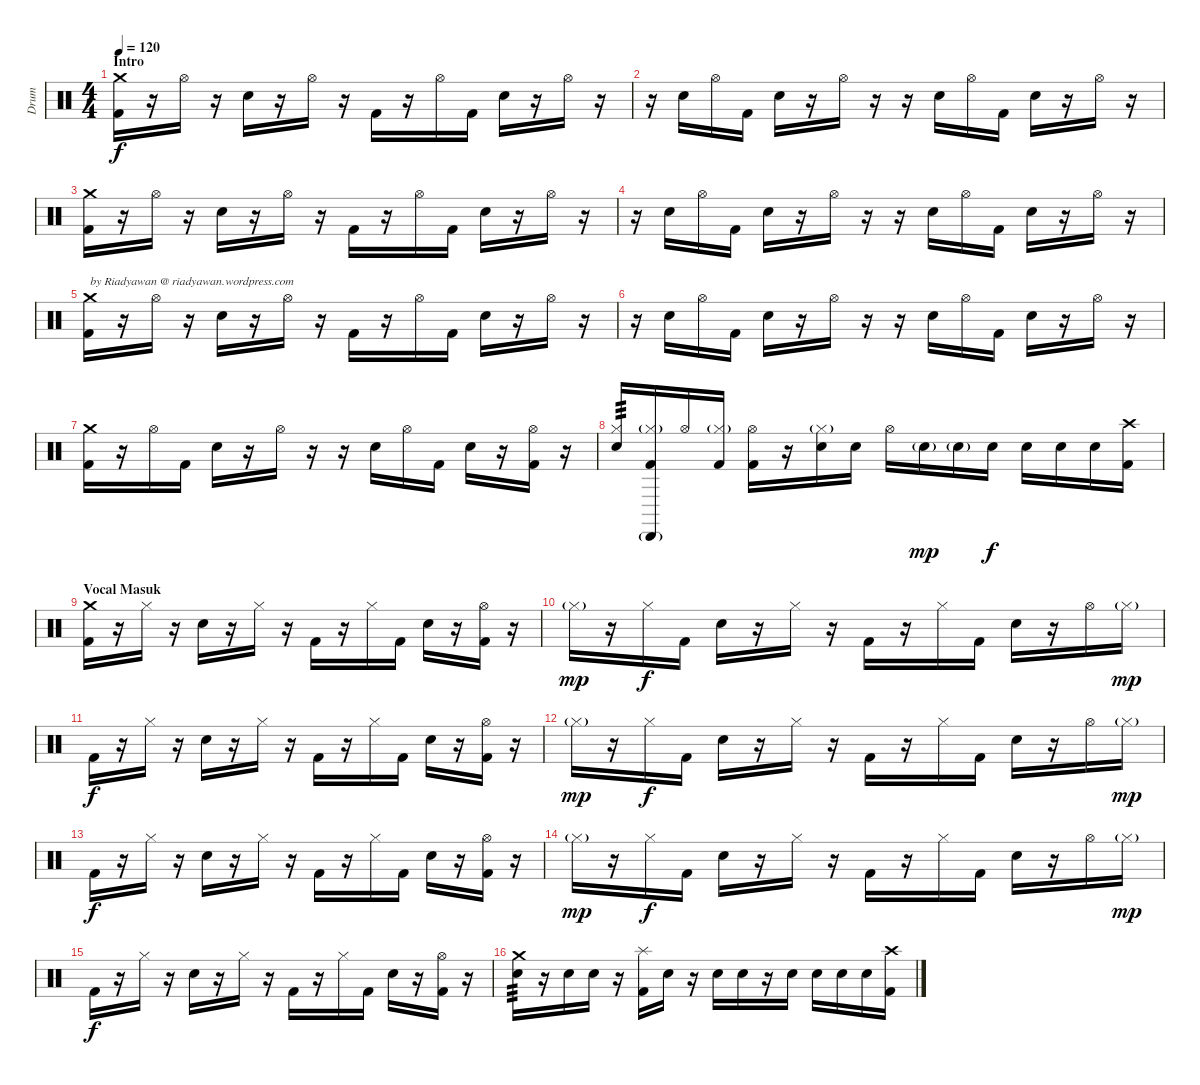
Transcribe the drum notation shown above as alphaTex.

\track ("Drum" "Drum") {instrument percussion}
\staff {score}
\articulation defaults
\ts (4 4)
\section ("" "Intro")
\tempo 120
\clef neutral
\ks c
("Crash medium (hit)" "Kick (hit) 2").16{dy f} r.16 "Hi-Hat (open)".16 r.16 "Snare (hit) 2".16 r.16 "Hi-Hat (open)".16 r.16 "Kick (hit) 2".16 r.16 "Hi-Hat (open)".16 "Kick (hit) 2".16 "Snare (hit) 2".16 r.16 "Hi-Hat (open)".16 r.16 |
r.16 "Snare (hit) 2".16 "Hi-Hat (open)".16 "Kick (hit) 2".16 "Snare (hit) 2".16 r.16 "Hi-Hat (open)".16 r.16 r.16 "Snare (hit) 2".16 "Hi-Hat (open)".16 "Kick (hit) 2".16 "Snare (hit) 2".16 r.16 "Hi-Hat (open)".16 r.16 |
("Crash medium (hit)" "Kick (hit) 2").16 r.16 "Hi-Hat (open)".16 r.16 "Snare (hit) 2".16 r.16 "Hi-Hat (open)".16 r.16 "Kick (hit) 2".16 r.16 "Hi-Hat (open)".16 "Kick (hit) 2".16 "Snare (hit) 2".16 r.16 "Hi-Hat (open)".16 r.16 |
r.16 "Snare (hit) 2".16 "Hi-Hat (open)".16 "Kick (hit) 2".16 "Snare (hit) 2".16 r.16 "Hi-Hat (open)".16 r.16 r.16 "Snare (hit) 2".16 "Hi-Hat (open)".16 "Kick (hit) 2".16 "Snare (hit) 2".16 r.16 "Hi-Hat (open)".16 r.16 |
("Crash medium (hit)" "Kick (hit) 2").16{txt "by Riadyawan @ riadyawan.wordpress.com"} r.16 "Hi-Hat (open)".16 r.16 "Snare (hit) 2".16 r.16 "Hi-Hat (open)".16 r.16 "Kick (hit) 2".16 r.16 "Hi-Hat (open)".16 "Kick (hit) 2".16 "Snare (hit) 2".16 r.16 "Hi-Hat (open)".16 r.16 |
r.16 "Snare (hit) 2".16 "Hi-Hat (open)".16 "Kick (hit) 2".16 "Snare (hit) 2".16 r.16 "Hi-Hat (open)".16 r.16 r.16 "Snare (hit) 2".16 "Hi-Hat (open)".16 "Kick (hit) 2".16 "Snare (hit) 2".16 r.16 "Hi-Hat (open)".16 r.16 |
("Crash medium (hit)" "Kick (hit) 2").16 r.16 "Hi-Hat (open)".16 "Kick (hit) 2".16 "Snare (hit) 2".16 r.16 "Hi-Hat (open)".16 r.16 r.16 "Snare (hit) 2".16 "Hi-Hat (open)".16 "Kick (hit) 2".16 "Snare (hit) 2".16 r.16 ("Hi-Hat (open)" "Kick (hit) 2").16 r.16 |
("Hi-Hat (closed)" "Snare (hit) 2").16{tp 3} ("Cabasa (hit)"{g} "Hi-Hat (closed)"{g} "Kick (hit) 2").16 "Hi-Hat (open)".16 ("Hi-Hat (closed)"{g} "Kick (hit) 2").16 ("Hi-Hat (open)" "Kick (hit) 2").16 r.16 ("Hi-Hat (closed)"{g} "Snare (hit) 2").16 "Snare (hit) 2".16 "Hi-Hat (open)".16 "Snare (hit) 2"{g}.16{dy mp} "Snare (hit) 2"{g}.16 "Snare (hit) 2".16{dy f} "Snare (hit) 2".16 "Snare (hit) 2".16 "Snare (hit) 2".16 ("Crash high (hit)" "Kick (hit) 2").16 |
\section ("" "Vocal Masuk")
("Crash medium (hit)" "Kick (hit) 2").16 r.16 "Hi-Hat (closed)".16 r.16 "Snare (hit) 2".16 r.16 "Hi-Hat (closed)".16 r.16 "Kick (hit) 2".16 r.16 "Hi-Hat (closed)".16 "Kick (hit) 2".16 "Snare (hit) 2".16 r.16 ("Hi-Hat (open)" "Kick (hit) 2").16 r.16 |
"Hi-Hat (closed)"{g}.16{dy mp} r.16 "Hi-Hat (closed)".16{dy f} "Kick (hit) 2".16 "Snare (hit) 2".16 r.16 "Hi-Hat (closed)".16 r.16 "Kick (hit) 2".16 r.16 "Hi-Hat (closed)".16 "Kick (hit) 2".16 "Snare (hit) 2".16 r.16 "Hi-Hat (open)".16 "Hi-Hat (closed)"{g}.16{dy mp} |
"Kick (hit) 2".16{dy f} r.16 "Hi-Hat (closed)".16 r.16 "Snare (hit) 2".16 r.16 "Hi-Hat (closed)".16 r.16 "Kick (hit) 2".16 r.16 "Hi-Hat (closed)".16 "Kick (hit) 2".16 "Snare (hit) 2".16 r.16 ("Hi-Hat (open)" "Kick (hit) 2").16 r.16 |
"Hi-Hat (closed)"{g}.16{dy mp} r.16 "Hi-Hat (closed)".16{dy f} "Kick (hit) 2".16 "Snare (hit) 2".16 r.16 "Hi-Hat (closed)".16 r.16 "Kick (hit) 2".16 r.16 "Hi-Hat (closed)".16 "Kick (hit) 2".16 "Snare (hit) 2".16 r.16 "Hi-Hat (open)".16 "Hi-Hat (closed)"{g}.16{dy mp} |
"Kick (hit) 2".16{dy f} r.16 "Hi-Hat (closed)".16 r.16 "Snare (hit) 2".16 r.16 "Hi-Hat (closed)".16 r.16 "Kick (hit) 2".16 r.16 "Hi-Hat (closed)".16 "Kick (hit) 2".16 "Snare (hit) 2".16 r.16 ("Hi-Hat (open)" "Kick (hit) 2").16 r.16 |
"Hi-Hat (closed)"{g}.16{dy mp} r.16 "Hi-Hat (closed)".16{dy f} "Kick (hit) 2".16 "Snare (hit) 2".16 r.16 "Hi-Hat (closed)".16 r.16 "Kick (hit) 2".16 r.16 "Hi-Hat (closed)".16 "Kick (hit) 2".16 "Snare (hit) 2".16 r.16 "Hi-Hat (open)".16 "Hi-Hat (closed)"{g}.16{dy mp} |
"Kick (hit) 2".16{dy f} r.16 "Hi-Hat (closed)".16 r.16 "Snare (hit) 2".16 r.16 "Hi-Hat (closed)".16 r.16 "Kick (hit) 2".16 r.16 "Hi-Hat (closed)".16 "Kick (hit) 2".16 "Snare (hit) 2".16 r.16 ("Hi-Hat (open)" "Kick (hit) 2").16 r.16 |
("Crash medium (hit)" "Snare (hit) 2").16{tp 3} r.16 "Snare (hit) 2".16 "Snare (hit) 2".16 r.16 ("Splash (hit)" "Kick (hit) 2").16 "Snare (hit) 2".16 r.16 "Snare (hit) 2".16 "Snare (hit) 2".16 r.16 "Snare (hit) 2".16 "Snare (hit) 2".16 "Snare (hit) 2".16 "Snare (hit) 2".16 ("Crash high (hit)" "Kick (hit) 2").16
